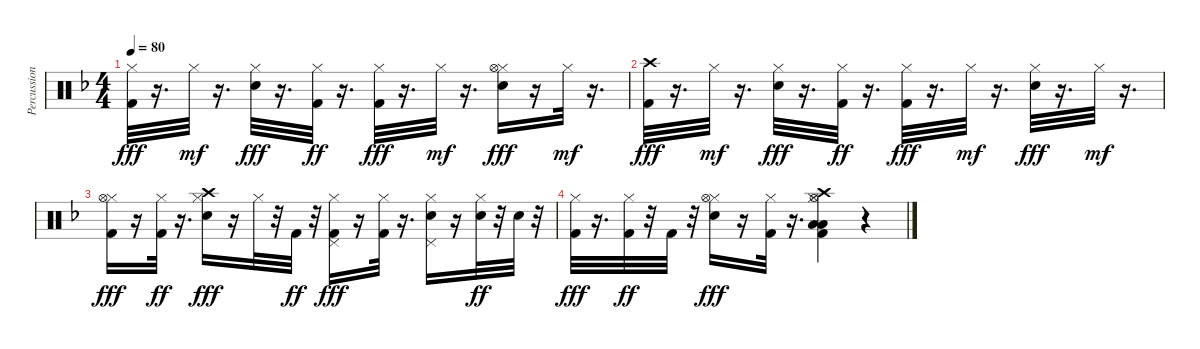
\track ("Percussion" "Percussion") {instrument percussion}
\staff {score}
\articulation defaults
\ts (4 4)
\tempo 80
\clef neutral
\ks f
("Hi-Hat (closed)" "Kick (hit) 2").32{dy fff} r.16{d} "Hi-Hat (closed)".32{dy mf} r.16{d} ("Hi-Hat (closed)" "Snare (hit) 2").32{dy fff} r.16{d} ("Hi-Hat (closed)" "Kick (hit) 2").32{dy ff} r.16{d} ("Hi-Hat (closed)" "Kick (hit) 2").32{dy fff} r.16{d} "Hi-Hat (closed)".32{dy mf} r.16{d} ("Hi-Hat (closed)" "Hi-Hat (open)" "Snare (hit) 2").16{dy fff} r.16 "Hi-Hat (closed)".32{dy mf} r.16{d} |
("Crash high (hit)" "Kick (hit) 2").32{dy fff} r.16{d} "Hi-Hat (closed)".32{dy mf} r.16{d} ("Hi-Hat (closed)" "Snare (hit) 2").32{dy fff} r.16{d} ("Hi-Hat (closed)" "Kick (hit) 2").32{dy ff} r.16{d} ("Hi-Hat (closed)" "Kick (hit) 2").32{dy fff} r.16{d} "Hi-Hat (closed)".32{dy mf} r.16{d} ("Hi-Hat (closed)" "Snare (hit) 2").32{dy fff} r.16{d} "Hi-Hat (closed)".32{dy mf} r.16{d} |
("Hi-Hat (closed)" "Hi-Hat (open)" "Kick (hit) 2").16{dy fff} r.16 ("Hi-Hat (closed)" "Kick (hit) 2").32{dy ff} r.16{d} ("Hi-Hat (closed)" "Crash high (hit)" "Snare (hit) 2").16{dy fff} r.16 "Hi-Hat (closed)".32 r.32 "Kick (hit) 2".32{dy ff} r.32 ("Hi-Hat (closed)" "Pedal Hi-Hat (hit)" "Kick (hit) 2").16{dy fff} r.16 ("Hi-Hat (closed)" "Kick (hit) 2").32 r.16{d} ("Hi-Hat (closed)" "Pedal Hi-Hat (hit)" "Snare (hit) 2").16 r.16 ("Hi-Hat (closed)" "Snare (hit) 2").32{dy ff} r.32 "Snare (hit) 2".32 r.32 |
("Hi-Hat (closed)" "Kick (hit) 2").32{dy fff} r.16{d} ("Hi-Hat (closed)" "Kick (hit) 2").32{dy ff} r.32 "Kick (hit) 2".32 r.32 ("Hi-Hat (closed)" "Hi-Hat (open)" "Snare (hit) 2").16{dy fff} r.16 ("Hi-Hat (closed)" "Kick (hit) 2").32 r.16{d} ("Hi-Hat (closed)" "Hi-Hat (open)" "Crash high (hit)" "Kick (hit) 2" "Low Floor Tom (hit)" "Low Tom (hit)").4 r.4
